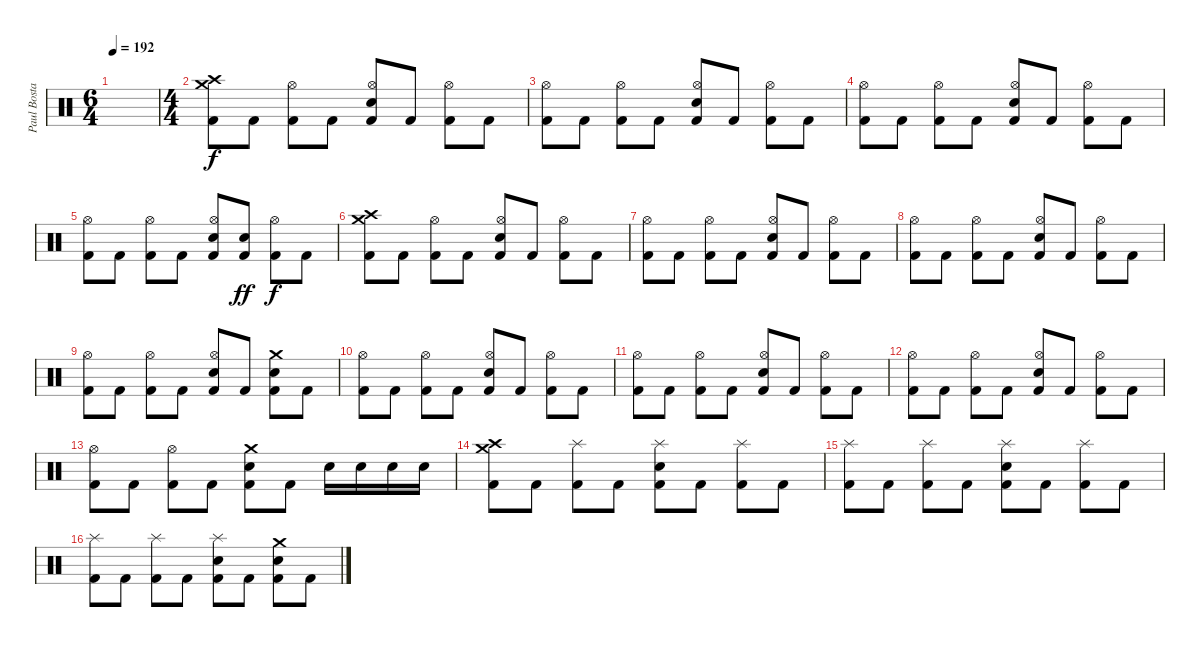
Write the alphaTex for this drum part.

\track ("Paul Bostaph" "Paul Bosta") {instrument percussion}
\staff {score}
\articulation defaults
\ts (6 4)
\tempo 192
\clef neutral
\ks c
|
\ts (4 4)
("Crash medium (hit)" "Crash high (hit)" "Kick (hit) 2").8{dy f} "Kick (hit) 2".8 ("Hi-Hat (open)" "Kick (hit) 2").8 "Kick (hit) 2".8 ("Electric Snare (hit)" "Hi-Hat (open)" "Kick (hit) 2").8 "Kick (hit) 2".8 ("Hi-Hat (open)" "Kick (hit) 2").8 "Kick (hit) 2".8 |
("Hi-Hat (open)" "Kick (hit) 2").8 "Kick (hit) 2".8 ("Hi-Hat (open)" "Kick (hit) 2").8 "Kick (hit) 2".8 ("Electric Snare (hit)" "Hi-Hat (open)" "Kick (hit) 2").8 "Kick (hit) 2".8 ("Hi-Hat (open)" "Kick (hit) 2").8 "Kick (hit) 2".8 |
("Hi-Hat (open)" "Kick (hit) 2").8 "Kick (hit) 2".8 ("Hi-Hat (open)" "Kick (hit) 2").8 "Kick (hit) 2".8 ("Electric Snare (hit)" "Hi-Hat (open)" "Kick (hit) 2").8 "Kick (hit) 2".8 ("Hi-Hat (open)" "Kick (hit) 2").8 "Kick (hit) 2".8 |
("Hi-Hat (open)" "Kick (hit) 2").8 "Kick (hit) 2".8 ("Hi-Hat (open)" "Kick (hit) 2").8 "Kick (hit) 2".8 ("Electric Snare (hit)" "Hi-Hat (open)" "Kick (hit) 2").8 ("Electric Snare (hit)" "Kick (hit) 2").8{dy ff} ("Hi-Hat (open)" "Kick (hit) 2").8{dy f} "Kick (hit) 2".8 |
("Crash medium (hit)" "Crash high (hit)" "Kick (hit) 2").8 "Kick (hit) 2".8 ("Hi-Hat (open)" "Kick (hit) 2").8 "Kick (hit) 2".8 ("Electric Snare (hit)" "Hi-Hat (open)" "Kick (hit) 2").8 "Kick (hit) 2".8 ("Hi-Hat (open)" "Kick (hit) 2").8 "Kick (hit) 2".8 |
("Hi-Hat (open)" "Kick (hit) 2").8 "Kick (hit) 2".8 ("Hi-Hat (open)" "Kick (hit) 2").8 "Kick (hit) 2".8 ("Electric Snare (hit)" "Hi-Hat (open)" "Kick (hit) 2").8 "Kick (hit) 2".8 ("Hi-Hat (open)" "Kick (hit) 2").8 "Kick (hit) 2".8 |
("Hi-Hat (open)" "Kick (hit) 2").8 "Kick (hit) 2".8 ("Hi-Hat (open)" "Kick (hit) 2").8 "Kick (hit) 2".8 ("Electric Snare (hit)" "Hi-Hat (open)" "Kick (hit) 2").8 "Kick (hit) 2".8 ("Hi-Hat (open)" "Kick (hit) 2").8 "Kick (hit) 2".8 |
("Hi-Hat (open)" "Kick (hit) 2").8 "Kick (hit) 2".8 ("Hi-Hat (open)" "Kick (hit) 2").8 "Kick (hit) 2".8 ("Electric Snare (hit)" "Hi-Hat (open)" "Kick (hit) 2").8 "Kick (hit) 2".8 ("Electric Snare (hit)" "Crash medium (hit)" "Kick (hit) 2").8 "Kick (hit) 2".8 |
("Hi-Hat (open)" "Kick (hit) 2").8 "Kick (hit) 2".8 ("Hi-Hat (open)" "Kick (hit) 2").8 "Kick (hit) 2".8 ("Electric Snare (hit)" "Hi-Hat (open)" "Kick (hit) 2").8 "Kick (hit) 2".8 ("Hi-Hat (open)" "Kick (hit) 2").8 "Kick (hit) 2".8 |
("Hi-Hat (open)" "Kick (hit) 2").8 "Kick (hit) 2".8 ("Hi-Hat (open)" "Kick (hit) 2").8 "Kick (hit) 2".8 ("Electric Snare (hit)" "Hi-Hat (open)" "Kick (hit) 2").8 "Kick (hit) 2".8 ("Hi-Hat (open)" "Kick (hit) 2").8 "Kick (hit) 2".8 |
("Hi-Hat (open)" "Kick (hit) 2").8 "Kick (hit) 2".8 ("Hi-Hat (open)" "Kick (hit) 2").8 "Kick (hit) 2".8 ("Electric Snare (hit)" "Hi-Hat (open)" "Kick (hit) 2").8 "Kick (hit) 2".8 ("Hi-Hat (open)" "Kick (hit) 2").8 "Kick (hit) 2".8 |
("Hi-Hat (open)" "Kick (hit) 2").8 "Kick (hit) 2".8 ("Hi-Hat (open)" "Kick (hit) 2").8 "Kick (hit) 2".8 ("Crash medium (hit)" "Electric Snare (hit)" "Kick (hit) 2").8 "Kick (hit) 2".8 "Electric Snare (hit)".16 "Electric Snare (hit)".16 "Electric Snare (hit)".16 "Electric Snare (hit)".16 |
("Crash medium (hit)" "Crash high (hit)" "Kick (hit) 2").8 "Kick (hit) 2".8 ("Splash (hit)" "Kick (hit) 2").8 "Kick (hit) 2".8 ("Electric Snare (hit)" "Splash (hit)" "Kick (hit) 2").8 "Kick (hit) 2".8 ("Splash (hit)" "Kick (hit) 2").8 "Kick (hit) 2".8 |
("Splash (hit)" "Kick (hit) 2").8 "Kick (hit) 2".8 ("Splash (hit)" "Kick (hit) 2").8 "Kick (hit) 2".8 ("Electric Snare (hit)" "Splash (hit)" "Kick (hit) 2").8 "Kick (hit) 2".8 ("Splash (hit)" "Kick (hit) 2").8 "Kick (hit) 2".8 |
("Splash (hit)" "Kick (hit) 2").8 "Kick (hit) 2".8 ("Splash (hit)" "Kick (hit) 2").8 "Kick (hit) 2".8 ("Electric Snare (hit)" "Splash (hit)" "Kick (hit) 2").8 "Kick (hit) 2".8 ("Electric Snare (hit)" "Crash medium (hit)" "Kick (hit) 2").8 "Kick (hit) 2".8
